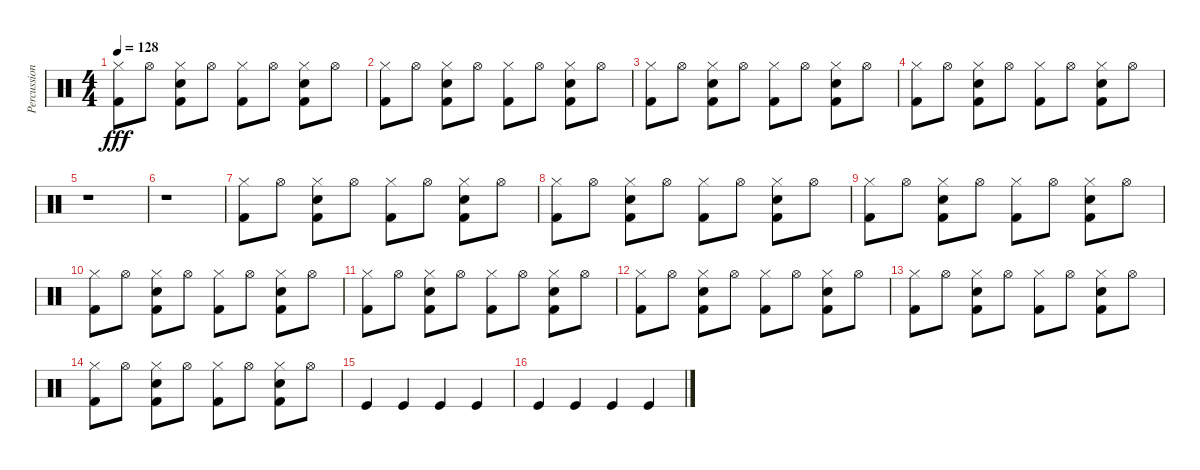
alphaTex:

\track ("Percussion" "Percussion") {instrument percussion}
\staff {score}
\articulation defaults
\ts (4 4)
\tempo 128
\clef neutral
\ks c
("Hi-Hat (closed)" "Kick (hit) 2").8{dy fff} "Hi-Hat (open)".8 ("Hi-Hat (closed)" "Kick (hit) 2" "Hand Clap (hit)").8 "Hi-Hat (open)".8 ("Hi-Hat (closed)" "Kick (hit) 2").8 "Hi-Hat (open)".8 ("Hi-Hat (closed)" "Kick (hit) 2" "Hand Clap (hit)").8 "Hi-Hat (open)".8 |
("Hi-Hat (closed)" "Kick (hit) 2").8 "Hi-Hat (open)".8 ("Hi-Hat (closed)" "Kick (hit) 2" "Hand Clap (hit)").8 "Hi-Hat (open)".8 ("Hi-Hat (closed)" "Kick (hit) 2").8 "Hi-Hat (open)".8 ("Hi-Hat (closed)" "Kick (hit) 2" "Hand Clap (hit)").8 "Hi-Hat (open)".8 |
("Hi-Hat (closed)" "Kick (hit) 2").8 "Hi-Hat (open)".8 ("Hi-Hat (closed)" "Kick (hit) 2" "Hand Clap (hit)").8 "Hi-Hat (open)".8 ("Hi-Hat (closed)" "Kick (hit) 2").8 "Hi-Hat (open)".8 ("Hi-Hat (closed)" "Kick (hit) 2" "Hand Clap (hit)").8 "Hi-Hat (open)".8 |
("Hi-Hat (closed)" "Kick (hit) 2").8 "Hi-Hat (open)".8 ("Hi-Hat (closed)" "Kick (hit) 2" "Hand Clap (hit)").8 "Hi-Hat (open)".8 ("Hi-Hat (closed)" "Kick (hit) 2").8 "Hi-Hat (open)".8 ("Hi-Hat (closed)" "Kick (hit) 2" "Hand Clap (hit)").8 "Hi-Hat (open)".8 |
r.1 |
r.1 |
("Hi-Hat (closed)" "Kick (hit) 2").8 "Hi-Hat (open)".8 ("Hi-Hat (closed)" "Kick (hit) 2" "Hand Clap (hit)").8 "Hi-Hat (open)".8 ("Hi-Hat (closed)" "Kick (hit) 2").8 "Hi-Hat (open)".8 ("Hi-Hat (closed)" "Kick (hit) 2" "Hand Clap (hit)").8 "Hi-Hat (open)".8 |
("Hi-Hat (closed)" "Kick (hit) 2").8 "Hi-Hat (open)".8 ("Hi-Hat (closed)" "Kick (hit) 2" "Hand Clap (hit)").8 "Hi-Hat (open)".8 ("Hi-Hat (closed)" "Kick (hit) 2").8 "Hi-Hat (open)".8 ("Hi-Hat (closed)" "Kick (hit) 2" "Hand Clap (hit)").8 "Hi-Hat (open)".8 |
("Hi-Hat (closed)" "Kick (hit) 2").8 "Hi-Hat (open)".8 ("Hi-Hat (closed)" "Kick (hit) 2" "Hand Clap (hit)").8 "Hi-Hat (open)".8 ("Hi-Hat (closed)" "Kick (hit) 2").8 "Hi-Hat (open)".8 ("Hi-Hat (closed)" "Kick (hit) 2" "Hand Clap (hit)").8 "Hi-Hat (open)".8 |
("Hi-Hat (closed)" "Kick (hit) 2").8 "Hi-Hat (open)".8 ("Hi-Hat (closed)" "Kick (hit) 2" "Hand Clap (hit)").8 "Hi-Hat (open)".8 ("Hi-Hat (closed)" "Kick (hit) 2").8 "Hi-Hat (open)".8 ("Hi-Hat (closed)" "Kick (hit) 2" "Hand Clap (hit)").8 "Hi-Hat (open)".8 |
("Hi-Hat (closed)" "Kick (hit) 2").8 "Hi-Hat (open)".8 ("Hi-Hat (closed)" "Kick (hit) 2" "Hand Clap (hit)").8 "Hi-Hat (open)".8 ("Hi-Hat (closed)" "Kick (hit) 2").8 "Hi-Hat (open)".8 ("Hi-Hat (closed)" "Kick (hit) 2" "Hand Clap (hit)").8 "Hi-Hat (open)".8 |
("Hi-Hat (closed)" "Kick (hit) 2").8 "Hi-Hat (open)".8 ("Hi-Hat (closed)" "Kick (hit) 2" "Hand Clap (hit)").8 "Hi-Hat (open)".8 ("Hi-Hat (closed)" "Kick (hit) 2").8 "Hi-Hat (open)".8 ("Hi-Hat (closed)" "Kick (hit) 2" "Hand Clap (hit)").8 "Hi-Hat (open)".8 |
("Hi-Hat (closed)" "Kick (hit) 2").8 "Hi-Hat (open)".8 ("Hi-Hat (closed)" "Kick (hit) 2" "Hand Clap (hit)").8 "Hi-Hat (open)".8 ("Hi-Hat (closed)" "Kick (hit) 2").8 "Hi-Hat (open)".8 ("Hi-Hat (closed)" "Kick (hit) 2" "Hand Clap (hit)").8 "Hi-Hat (open)".8 |
("Hi-Hat (closed)" "Kick (hit) 2").8 "Hi-Hat (open)".8 ("Hi-Hat (closed)" "Kick (hit) 2" "Hand Clap (hit)").8 "Hi-Hat (open)".8 ("Hi-Hat (closed)" "Kick (hit) 2").8 "Hi-Hat (open)".8 ("Hi-Hat (closed)" "Kick (hit) 2" "Hand Clap (hit)").8 "Hi-Hat (open)".8 |
"Kick (hit)".4 "Kick (hit)".4 "Kick (hit)".4 "Kick (hit)".4 |
"Kick (hit)".4 "Kick (hit)".4 "Kick (hit)".4 "Kick (hit)".4
